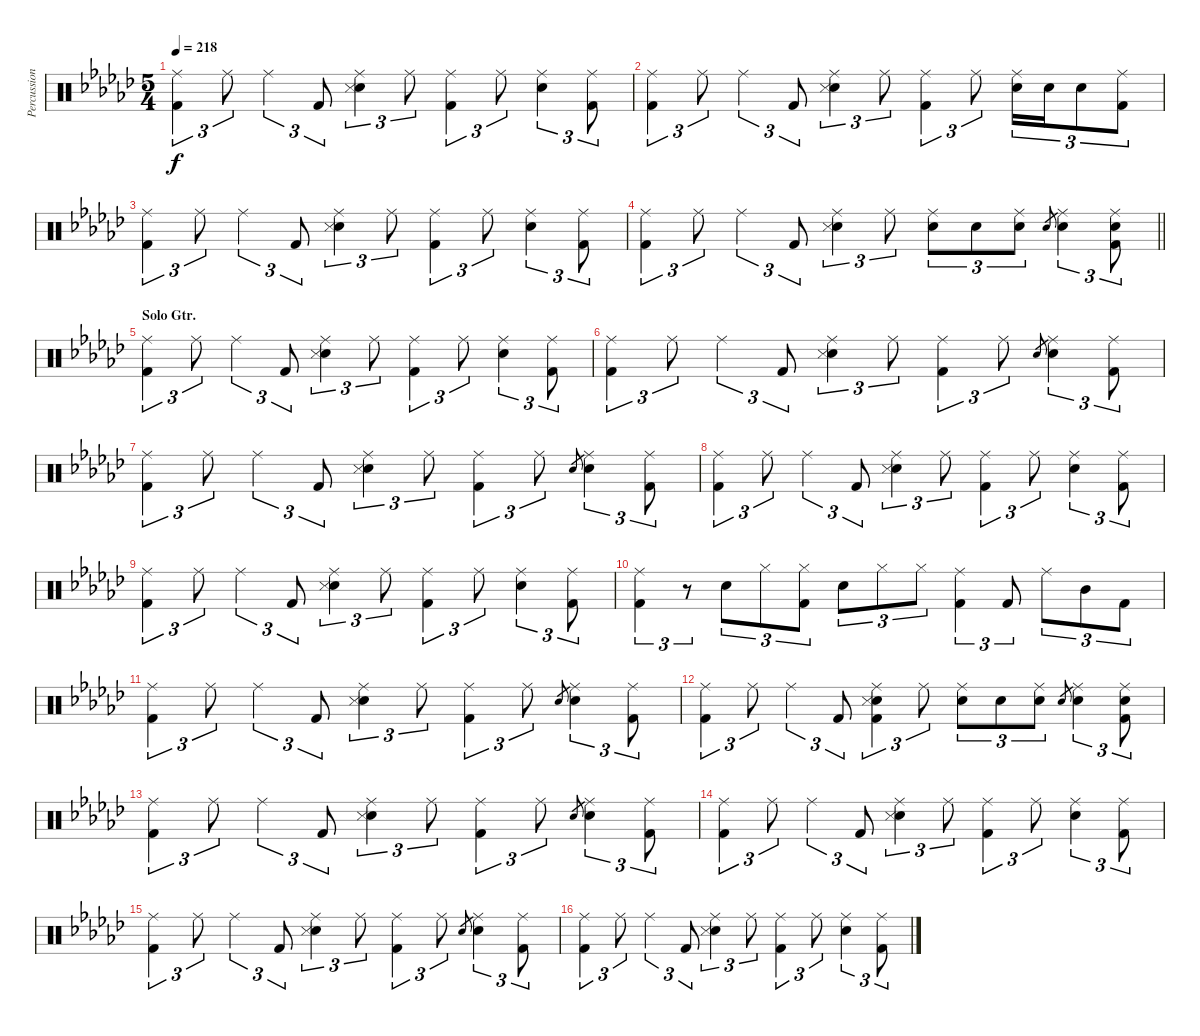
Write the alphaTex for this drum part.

\track ("Percussions" "Percussion") {instrument percussion}
\staff {score}
\articulation defaults
\ts (5 4)
\tempo 218
\clef neutral
\ks ebminor
("Ride (middle)" "Kick (hit) 2").4{tu (3 2) dy f} "Ride (middle)".8{tu (3 2)} "Ride (middle)".4{tu (3 2)} "Kick (hit) 2".8{tu (3 2)} ("Ride (middle)" "Snare (hit) 2" "Snare (side stick) 3").4{tu (3 2)} "Ride (middle)".8{tu (3 2)} ("Ride (middle)" "Kick (hit) 2").4{tu (3 2)} "Ride (middle)".8{tu (3 2)} ("Ride (middle)" "Snare (hit) 2").4{tu (3 2)} ("Ride (middle)" "Kick (hit) 2").8{tu (3 2)} |
("Ride (middle)" "Kick (hit) 2").4{tu (3 2)} "Ride (middle)".8{tu (3 2)} "Ride (middle)".4{tu (3 2)} "Kick (hit) 2".8{tu (3 2)} ("Ride (middle)" "Snare (hit) 2" "Snare (side stick) 3").4{tu (3 2)} "Ride (middle)".8{tu (3 2)} ("Ride (middle)" "Kick (hit) 2").4{tu (3 2)} "Ride (middle)".8{tu (3 2)} ("Ride (middle)" "Snare (hit) 2").16{tu (3 2)} "Snare (hit) 2".16{tu (3 2)} "Snare (hit) 2".8{tu (3 2)} ("Ride (middle)" "Kick (hit) 2").8{tu (3 2)} |
("Ride (middle)" "Kick (hit) 2").4{tu (3 2)} "Ride (middle)".8{tu (3 2)} "Ride (middle)".4{tu (3 2)} "Kick (hit) 2".8{tu (3 2)} ("Ride (middle)" "Snare (hit) 2" "Snare (side stick) 3").4{tu (3 2)} "Ride (middle)".8{tu (3 2)} ("Ride (middle)" "Kick (hit) 2").4{tu (3 2)} "Ride (middle)".8{tu (3 2)} ("Ride (middle)" "Snare (hit) 2").4{tu (3 2)} ("Ride (middle)" "Kick (hit) 2").8{tu (3 2)} |
\barLineRight lightlight
("Ride (middle)" "Kick (hit) 2").4{tu (3 2)} "Ride (middle)".8{tu (3 2)} "Ride (middle)".4{tu (3 2)} "Kick (hit) 2".8{tu (3 2)} ("Ride (middle)" "Snare (hit) 2" "Snare (side stick) 3").4{tu (3 2)} "Ride (middle)".8{tu (3 2)} ("Ride (middle)" "Snare (hit) 2").8{tu (3 2)} "Snare (hit) 2".8{tu (3 2)} ("Ride (middle)" "Snare (hit) 2").8{tu (3 2)} "Snare (hit) 2".8{gr} ("Ride (middle)" "Snare (hit) 2").4{tu (3 2)} ("Ride (middle)" "Snare (hit) 2" "Kick (hit) 2").8{tu (3 2)} |
\section ("" "Solo Gtr.")
("Ride (middle)" "Kick (hit) 2").4{tu (3 2) volume 14 balance 8} "Ride (middle)".8{tu (3 2)} "Ride (middle)".4{tu (3 2)} "Kick (hit) 2".8{tu (3 2)} ("Ride (middle)" "Snare (hit) 2" "Snare (side stick) 3").4{tu (3 2)} "Ride (middle)".8{tu (3 2)} ("Ride (middle)" "Kick (hit) 2").4{tu (3 2)} "Ride (middle)".8{tu (3 2)} ("Ride (middle)" "Snare (hit) 2").4{tu (3 2)} ("Ride (middle)" "Kick (hit) 2").8{tu (3 2)} |
("Ride (middle)" "Kick (hit) 2").4{tu (3 2)} "Ride (middle)".8{tu (3 2)} "Ride (middle)".4{tu (3 2)} "Kick (hit) 2".8{tu (3 2)} ("Ride (middle)" "Snare (hit) 2" "Snare (side stick) 3").4{tu (3 2)} "Ride (middle)".8{tu (3 2)} ("Ride (middle)" "Kick (hit) 2").4{tu (3 2)} "Ride (middle)".8{tu (3 2)} "Snare (hit) 2".8{gr} ("Ride (middle)" "Snare (hit) 2").4{tu (3 2)} ("Ride (middle)" "Kick (hit) 2").8{tu (3 2)} |
("Ride (middle)" "Kick (hit) 2").4{tu (3 2)} "Ride (middle)".8{tu (3 2)} "Ride (middle)".4{tu (3 2)} "Kick (hit) 2".8{tu (3 2)} ("Ride (middle)" "Snare (hit) 2" "Snare (side stick) 3").4{tu (3 2)} "Ride (middle)".8{tu (3 2)} ("Ride (middle)" "Kick (hit) 2").4{tu (3 2)} "Ride (middle)".8{tu (3 2)} "Snare (hit) 2".8{gr} ("Ride (middle)" "Snare (hit) 2").4{tu (3 2)} ("Ride (middle)" "Kick (hit) 2").8{tu (3 2)} |
("Ride (middle)" "Kick (hit) 2").4{tu (3 2)} "Ride (middle)".8{tu (3 2)} "Ride (middle)".4{tu (3 2)} "Kick (hit) 2".8{tu (3 2)} ("Ride (middle)" "Snare (hit) 2" "Snare (side stick) 3").4{tu (3 2)} "Ride (middle)".8{tu (3 2)} ("Ride (middle)" "Kick (hit) 2").4{tu (3 2)} "Ride (middle)".8{tu (3 2)} ("Ride (middle)" "Snare (hit) 2").4{tu (3 2)} ("Ride (middle)" "Kick (hit) 2").8{tu (3 2)} |
("Ride (middle)" "Kick (hit) 2").4{tu (3 2)} "Ride (middle)".8{tu (3 2)} "Ride (middle)".4{tu (3 2)} "Kick (hit) 2".8{tu (3 2)} ("Ride (middle)" "Snare (hit) 2" "Snare (side stick) 3").4{tu (3 2)} "Ride (middle)".8{tu (3 2)} ("Ride (middle)" "Kick (hit) 2").4{tu (3 2)} "Ride (middle)".8{tu (3 2)} ("Ride (middle)" "Snare (hit) 2").4{tu (3 2)} ("Ride (middle)" "Kick (hit) 2").8{tu (3 2)} |
("Ride (middle)" "Kick (hit) 2").4{tu (3 2)} r.8{tu (3 2)} "Snare (hit) 2".8{tu (3 2)} "Hi-Hat (closed)".8{tu (3 2)} ("Hi-Hat (closed)" "Kick (hit) 2").8{tu (3 2)} "Snare (hit) 2".8{tu (3 2)} "Hi-Hat (closed)".8{tu (3 2)} "Hi-Hat (closed)".8{tu (3 2)} ("Ride (middle)" "Kick (hit) 2").4{tu (3 2)} "Kick (hit) 2".8{tu (3 2)} "Ride (middle)".8{tu (3 2)} "Mid Tom (hit)".8{tu (3 2)} "Kick (hit) 2".8{tu (3 2)} |
("Ride (middle)" "Kick (hit) 2").4{tu (3 2)} "Ride (middle)".8{tu (3 2)} "Ride (middle)".4{tu (3 2)} "Kick (hit) 2".8{tu (3 2)} ("Ride (middle)" "Snare (hit) 2" "Snare (side stick) 3").4{tu (3 2)} "Ride (middle)".8{tu (3 2)} ("Ride (middle)" "Kick (hit) 2").4{tu (3 2)} "Ride (middle)".8{tu (3 2)} "Snare (hit) 2".8{gr} ("Ride (middle)" "Snare (hit) 2").4{tu (3 2)} ("Ride (middle)" "Kick (hit) 2").8{tu (3 2)} |
("Ride (middle)" "Kick (hit) 2").4{tu (3 2)} "Ride (middle)".8{tu (3 2)} "Ride (middle)".4{tu (3 2)} "Kick (hit) 2".8{tu (3 2)} ("Ride (middle)" "Snare (hit) 2" "Snare (side stick) 3" "Kick (hit) 2").4{tu (3 2)} "Ride (middle)".8{tu (3 2)} ("Ride (middle)" "Snare (hit) 2").8{tu (3 2)} "Snare (hit) 2".8{tu (3 2)} ("Ride (middle)" "Snare (hit) 2").8{tu (3 2)} "Snare (hit) 2".8{gr} ("Ride (middle)" "Snare (hit) 2").4{tu (3 2)} ("Ride (middle)" "Snare (hit) 2" "Kick (hit) 2").8{tu (3 2)} |
("Ride (middle)" "Kick (hit) 2").4{tu (3 2)} "Ride (middle)".8{tu (3 2)} "Ride (middle)".4{tu (3 2)} "Kick (hit) 2".8{tu (3 2)} ("Ride (middle)" "Snare (hit) 2" "Snare (side stick) 3").4{tu (3 2)} "Ride (middle)".8{tu (3 2)} ("Ride (middle)" "Kick (hit) 2").4{tu (3 2)} "Ride (middle)".8{tu (3 2)} "Snare (hit) 2".8{gr} ("Ride (middle)" "Snare (hit) 2").4{tu (3 2)} ("Ride (middle)" "Kick (hit) 2").8{tu (3 2)} |
("Ride (middle)" "Kick (hit) 2").4{tu (3 2)} "Ride (middle)".8{tu (3 2)} "Ride (middle)".4{tu (3 2)} "Kick (hit) 2".8{tu (3 2)} ("Ride (middle)" "Snare (hit) 2" "Snare (side stick) 3").4{tu (3 2)} "Ride (middle)".8{tu (3 2)} ("Ride (middle)" "Kick (hit) 2").4{tu (3 2)} "Ride (middle)".8{tu (3 2)} ("Ride (middle)" "Snare (hit) 2").4{tu (3 2)} ("Ride (middle)" "Kick (hit) 2").8{tu (3 2)} |
("Ride (middle)" "Kick (hit) 2").4{tu (3 2)} "Ride (middle)".8{tu (3 2)} "Ride (middle)".4{tu (3 2)} "Kick (hit) 2".8{tu (3 2)} ("Ride (middle)" "Snare (hit) 2" "Snare (side stick) 3").4{tu (3 2)} "Ride (middle)".8{tu (3 2)} ("Ride (middle)" "Kick (hit) 2").4{tu (3 2)} "Ride (middle)".8{tu (3 2)} "Snare (hit) 2".8{gr} ("Ride (middle)" "Snare (hit) 2").4{tu (3 2)} ("Ride (middle)" "Kick (hit) 2").8{tu (3 2)} |
("Ride (middle)" "Kick (hit) 2").4{tu (3 2)} "Ride (middle)".8{tu (3 2)} "Ride (middle)".4{tu (3 2)} "Kick (hit) 2".8{tu (3 2)} ("Ride (middle)" "Snare (hit) 2" "Snare (side stick) 3").4{tu (3 2)} "Ride (middle)".8{tu (3 2)} ("Ride (middle)" "Kick (hit) 2").4{tu (3 2)} "Ride (middle)".8{tu (3 2)} ("Ride (middle)" "Snare (hit) 2").4{tu (3 2)} ("Ride (middle)" "Kick (hit) 2").8{tu (3 2)}
